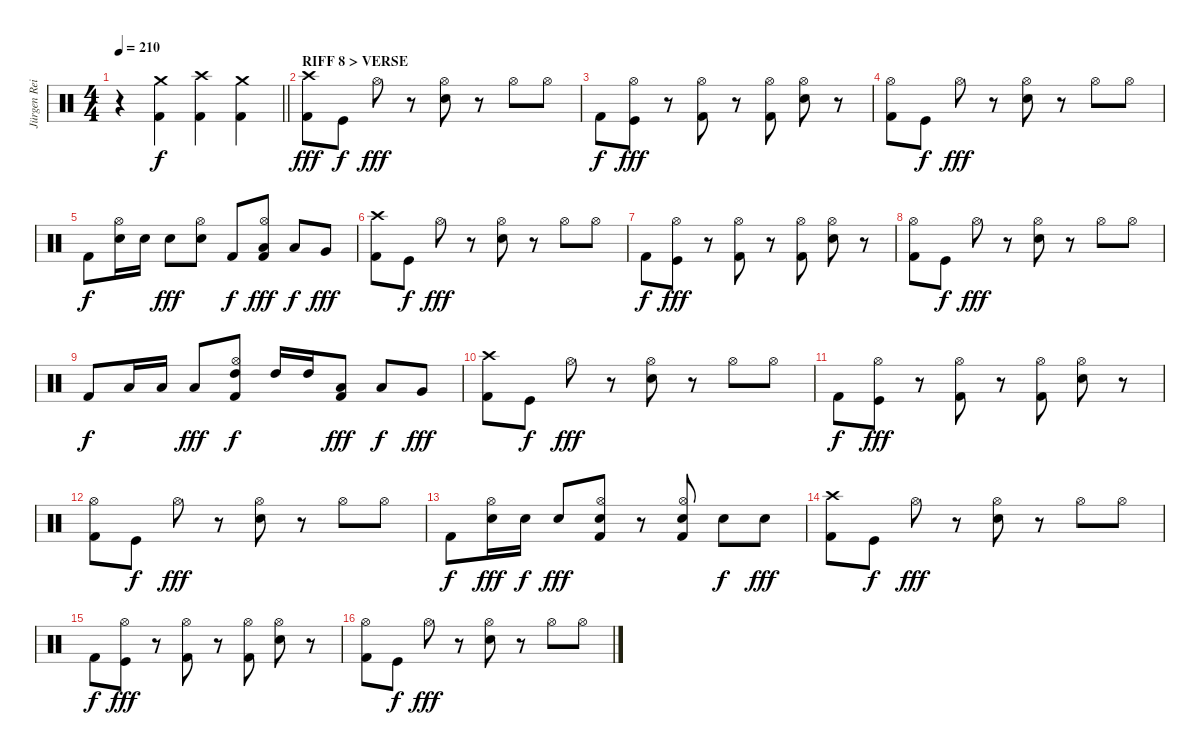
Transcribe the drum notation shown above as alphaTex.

\track ("Jürgen Reil" "Jürgen Rei") {instrument percussion}
\staff {score}
\articulation defaults
\ts (4 4)
\tempo 210
\clef neutral
\barLineRight lightlight
\ks c
r.4{dy f} ("Crash medium (hit)" "Kick (hit) 2").4 ("Crash high (hit)" "Kick (hit) 2").4 ("Crash medium (hit)" "Kick (hit) 2").4 |
\section ("" "RIFF 8 > VERSE")
("Crash high (hit)" "Kick (hit) 2").8{dy fff} "Kick (hit)".8{dy f} "Hi-Hat (open)".8{dy fff} r.8 ("Hi-Hat (open)" "Electric Snare (hit)").8 r.8 "Hi-Hat (open)".8 "Hi-Hat (open)".8 |
"Kick (hit) 2".8{dy f} ("Hi-Hat (open)" "Kick (hit)").8{dy fff} r.8 ("Hi-Hat (open)" "Kick (hit) 2").8 r.8 ("Hi-Hat (open)" "Kick (hit) 2").8 ("Hi-Hat (open)" "Electric Snare (hit)").8 r.8 |
("Hi-Hat (open)" "Kick (hit) 2").8 "Kick (hit)".8{dy f} "Hi-Hat (open)".8{dy fff} r.8 ("Hi-Hat (open)" "Electric Snare (hit)").8 r.8 "Hi-Hat (open)".8 "Hi-Hat (open)".8 |
"Kick (hit) 2".8{dy f} ("Hi-Hat (open)" "Electric Snare (hit)").16 "Electric Snare (hit)".16 "Electric Snare (hit)".8{dy fff} ("Hi-Hat (open)" "Electric Snare (hit)").8 "Kick (hit) 2".8{dy f} ("Hi-Hat (open)" "Low Tom (hit)" "Kick (hit) 2").8{dy fff} "Low Tom (hit)".8{dy f} "Very Low Tom (hit)".8{dy fff} |
("Crash high (hit)" "Kick (hit) 2").8 "Kick (hit)".8{dy f} "Hi-Hat (open)".8{dy fff} r.8 ("Hi-Hat (open)" "Electric Snare (hit)").8 r.8 "Hi-Hat (open)".8 "Hi-Hat (open)".8 |
"Kick (hit) 2".8{dy f} ("Hi-Hat (open)" "Kick (hit)").8{dy fff} r.8 ("Hi-Hat (open)" "Kick (hit) 2").8 r.8 ("Hi-Hat (open)" "Kick (hit) 2").8 ("Hi-Hat (open)" "Electric Snare (hit)").8 r.8 |
("Hi-Hat (open)" "Kick (hit) 2").8 "Kick (hit)".8{dy f} "Hi-Hat (open)".8{dy fff} r.8 ("Hi-Hat (open)" "Electric Snare (hit)").8 r.8 "Hi-Hat (open)".8 "Hi-Hat (open)".8 |
"Kick (hit) 2".8{dy f} "Low Tom (hit)".16 "Low Tom (hit)".16 "Low Tom (hit)".8{dy fff} ("Hi-Hat (open)" "High Tom (hit)" "Kick (hit) 2").8{dy f} "High Tom (hit)".16 "High Tom (hit)".16 ("Low Tom (hit)" "Kick (hit) 2").8{dy fff} "Low Tom (hit)".8{dy f} "Very Low Tom (hit)".8{dy fff} |
("Crash high (hit)" "Kick (hit) 2").8 "Kick (hit)".8{dy f} "Hi-Hat (open)".8{dy fff} r.8 ("Hi-Hat (open)" "Electric Snare (hit)").8 r.8 "Hi-Hat (open)".8 "Hi-Hat (open)".8 |
"Kick (hit) 2".8{dy f} ("Hi-Hat (open)" "Kick (hit)").8{dy fff} r.8 ("Hi-Hat (open)" "Kick (hit) 2").8 r.8 ("Hi-Hat (open)" "Kick (hit) 2").8 ("Hi-Hat (open)" "Electric Snare (hit)").8 r.8 |
("Hi-Hat (open)" "Kick (hit) 2").8 "Kick (hit)".8{dy f} "Hi-Hat (open)".8{dy fff} r.8 ("Hi-Hat (open)" "Electric Snare (hit)").8 r.8 "Hi-Hat (open)".8 "Hi-Hat (open)".8 |
"Kick (hit) 2".8{dy f} ("Hi-Hat (open)" "Electric Snare (hit)").16{dy fff} "Electric Snare (hit)".16{dy f} "Electric Snare (hit)".8{dy fff} ("Hi-Hat (open)" "Electric Snare (hit)" "Kick (hit) 2").8 r.8 ("Hi-Hat (open)" "Electric Snare (hit)" "Kick (hit) 2").8 "Electric Snare (hit)".8{dy f} "Electric Snare (hit)".8{dy fff} |
("Crash high (hit)" "Kick (hit) 2").8 "Kick (hit)".8{dy f} "Hi-Hat (open)".8{dy fff} r.8 ("Hi-Hat (open)" "Electric Snare (hit)").8 r.8 "Hi-Hat (open)".8 "Hi-Hat (open)".8 |
"Kick (hit) 2".8{dy f} ("Hi-Hat (open)" "Kick (hit)").8{dy fff} r.8 ("Hi-Hat (open)" "Kick (hit) 2").8 r.8 ("Hi-Hat (open)" "Kick (hit) 2").8 ("Hi-Hat (open)" "Electric Snare (hit)").8 r.8 |
("Hi-Hat (open)" "Kick (hit) 2").8 "Kick (hit)".8{dy f} "Hi-Hat (open)".8{dy fff} r.8 ("Hi-Hat (open)" "Electric Snare (hit)").8 r.8 "Hi-Hat (open)".8 "Hi-Hat (open)".8
